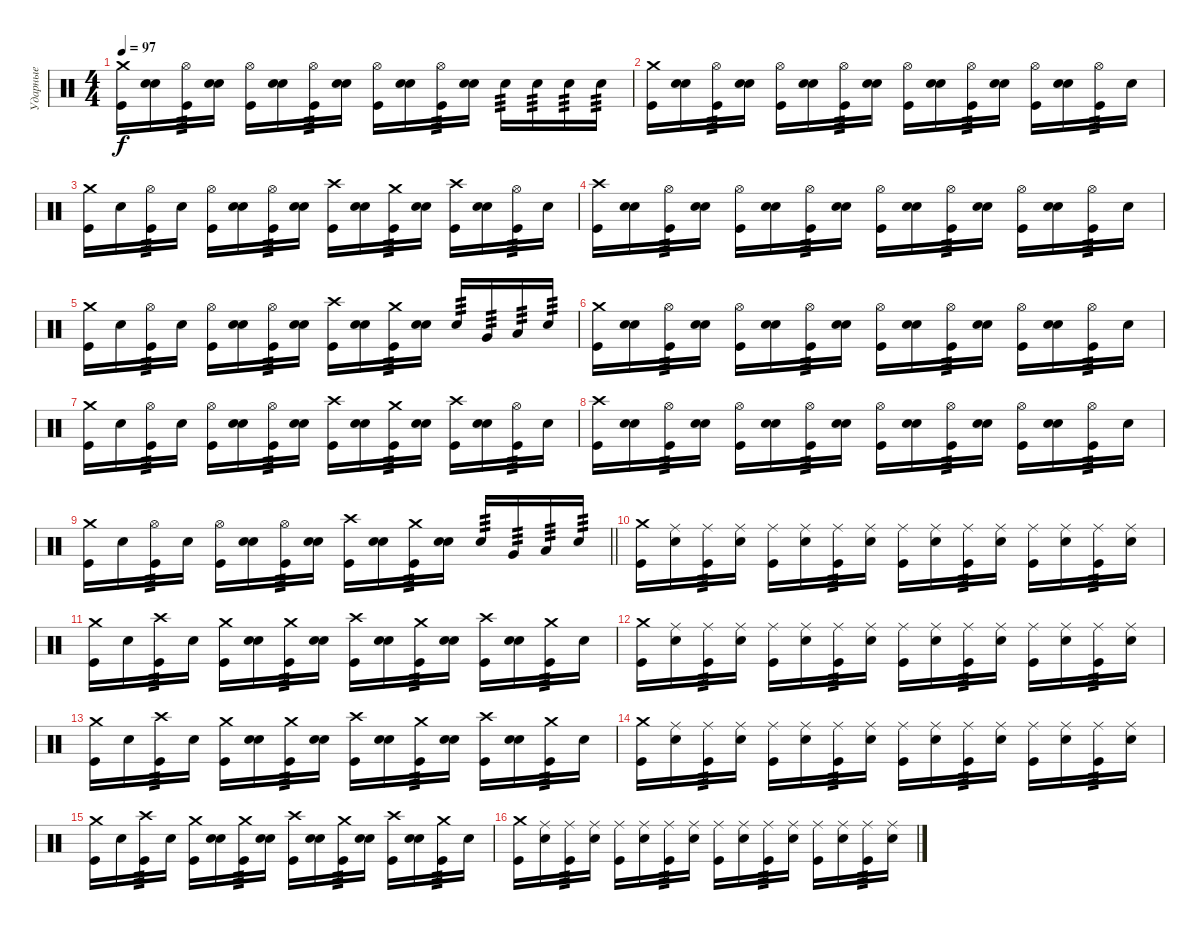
\track ("Ударные" "Ударные") {instrument percussion}
\staff {score}
\articulation defaults
\ts (4 4)
\tempo 97
\clef neutral
\ks c
("Kick (hit)" "Crash medium (hit)").16{dy f} ("Electric Snare (hit)" "Snare (hit)").16 ("Kick (hit)" "Hi-Hat (open)").16{tp 3} ("Electric Snare (hit)" "Snare (hit)").16 ("Kick (hit)" "Hi-Hat (open)").16 ("Electric Snare (hit)" "Snare (hit)").16 ("Kick (hit)" "Hi-Hat (open)").16{tp 3} ("Electric Snare (hit)" "Snare (hit)").16 ("Kick (hit)" "Hi-Hat (open)").16 ("Electric Snare (hit)" "Snare (hit)").16 ("Kick (hit)" "Hi-Hat (open)").16{tp 3} ("Electric Snare (hit)" "Snare (hit)").16 "Electric Snare (hit)".16{tp 3} "Electric Snare (hit)".16{tp 3} "Electric Snare (hit)".16{tp 3} "Electric Snare (hit)".16{tp 3} |
("Kick (hit)" "Crash medium (hit)").16 ("Electric Snare (hit)" "Snare (hit)").16 ("Kick (hit)" "Hi-Hat (open)").16{tp 3} ("Electric Snare (hit)" "Snare (hit)").16 ("Kick (hit)" "Hi-Hat (open)").16 ("Electric Snare (hit)" "Snare (hit)").16 ("Kick (hit)" "Hi-Hat (open)").16{tp 3} ("Electric Snare (hit)" "Snare (hit)").16 ("Kick (hit)" "Hi-Hat (open)").16 ("Electric Snare (hit)" "Snare (hit)").16 ("Kick (hit)" "Hi-Hat (open)").16{tp 3} ("Electric Snare (hit)" "Snare (hit)").16 ("Kick (hit)" "Hi-Hat (open)").16 ("Electric Snare (hit)" "Snare (hit)").16 ("Kick (hit)" "Hi-Hat (open)").16{tp 3} "Electric Snare (hit)".16 |
("Kick (hit)" "Crash medium (hit)").16 "Electric Snare (hit)".16 ("Kick (hit)" "Hi-Hat (open)").16{tp 3} "Electric Snare (hit)".16 ("Kick (hit)" "Hi-Hat (open)").16 ("Electric Snare (hit)" "Snare (hit)").16 ("Kick (hit)" "Hi-Hat (open)").16{tp 3} ("Electric Snare (hit)" "Snare (hit)").16 ("Kick (hit)" "Crash high (hit)").16 ("Electric Snare (hit)" "Snare (hit)").16 ("Kick (hit)" "Crash medium (hit)").16{tp 3} ("Electric Snare (hit)" "Snare (hit)").16 ("Kick (hit)" "Crash high (hit)").16 ("Electric Snare (hit)" "Snare (hit)").16 ("Kick (hit)" "Hi-Hat (open)").16{tp 3} "Electric Snare (hit)".16 |
("Kick (hit)" "Crash high (hit)").16 ("Electric Snare (hit)" "Snare (hit)").16 ("Kick (hit)" "Hi-Hat (open)").16{tp 3} ("Electric Snare (hit)" "Snare (hit)").16 ("Kick (hit)" "Hi-Hat (open)").16 ("Electric Snare (hit)" "Snare (hit)").16 ("Kick (hit)" "Hi-Hat (open)").16{tp 3} ("Electric Snare (hit)" "Snare (hit)").16 ("Kick (hit)" "Hi-Hat (open)").16 ("Electric Snare (hit)" "Snare (hit)").16 ("Kick (hit)" "Hi-Hat (open)").16{tp 3} ("Electric Snare (hit)" "Snare (hit)").16 ("Kick (hit)" "Hi-Hat (open)").16 ("Electric Snare (hit)" "Snare (hit)").16 ("Kick (hit)" "Hi-Hat (open)").16{tp 3} "Electric Snare (hit)".16 |
("Kick (hit)" "Crash medium (hit)").16 "Electric Snare (hit)".16 ("Kick (hit)" "Hi-Hat (open)").16{tp 3} "Electric Snare (hit)".16 ("Kick (hit)" "Hi-Hat (open)").16 ("Electric Snare (hit)" "Snare (hit)").16 ("Kick (hit)" "Hi-Hat (open)").16{tp 3} ("Electric Snare (hit)" "Snare (hit)").16 ("Kick (hit)" "Crash high (hit)").16 ("Electric Snare (hit)" "Snare (hit)").16 ("Kick (hit)" "Crash medium (hit)").16{tp 3} ("Electric Snare (hit)" "Snare (hit)").16 "Electric Snare (hit)".16{tp 3} "Very Low Tom (hit)".16{tp 3} "Low Tom (hit)".16{tp 3} "Electric Snare (hit)".16{tp 3} |
("Kick (hit)" "Crash medium (hit)").16 ("Electric Snare (hit)" "Snare (hit)").16 ("Kick (hit)" "Hi-Hat (open)").16{tp 3} ("Electric Snare (hit)" "Snare (hit)").16 ("Kick (hit)" "Hi-Hat (open)").16 ("Electric Snare (hit)" "Snare (hit)").16 ("Kick (hit)" "Hi-Hat (open)").16{tp 3} ("Electric Snare (hit)" "Snare (hit)").16 ("Kick (hit)" "Hi-Hat (open)").16 ("Electric Snare (hit)" "Snare (hit)").16 ("Kick (hit)" "Hi-Hat (open)").16{tp 3} ("Electric Snare (hit)" "Snare (hit)").16 ("Kick (hit)" "Hi-Hat (open)").16 ("Electric Snare (hit)" "Snare (hit)").16 ("Kick (hit)" "Hi-Hat (open)").16{tp 3} "Electric Snare (hit)".16 |
("Kick (hit)" "Crash medium (hit)").16 "Electric Snare (hit)".16 ("Kick (hit)" "Hi-Hat (open)").16{tp 3} "Electric Snare (hit)".16 ("Kick (hit)" "Hi-Hat (open)").16 ("Electric Snare (hit)" "Snare (hit)").16 ("Kick (hit)" "Hi-Hat (open)").16{tp 3} ("Electric Snare (hit)" "Snare (hit)").16 ("Kick (hit)" "Crash high (hit)").16 ("Electric Snare (hit)" "Snare (hit)").16 ("Kick (hit)" "Crash medium (hit)").16{tp 3} ("Electric Snare (hit)" "Snare (hit)").16 ("Kick (hit)" "Crash high (hit)").16 ("Electric Snare (hit)" "Snare (hit)").16 ("Kick (hit)" "Hi-Hat (open)").16{tp 3} "Electric Snare (hit)".16 |
("Kick (hit)" "Crash high (hit)").16 ("Electric Snare (hit)" "Snare (hit)").16 ("Kick (hit)" "Hi-Hat (open)").16{tp 3} ("Electric Snare (hit)" "Snare (hit)").16 ("Kick (hit)" "Hi-Hat (open)").16 ("Electric Snare (hit)" "Snare (hit)").16 ("Kick (hit)" "Hi-Hat (open)").16{tp 3} ("Electric Snare (hit)" "Snare (hit)").16 ("Kick (hit)" "Hi-Hat (open)").16 ("Electric Snare (hit)" "Snare (hit)").16 ("Kick (hit)" "Hi-Hat (open)").16{tp 3} ("Electric Snare (hit)" "Snare (hit)").16 ("Kick (hit)" "Hi-Hat (open)").16 ("Electric Snare (hit)" "Snare (hit)").16 ("Kick (hit)" "Hi-Hat (open)").16{tp 3} "Electric Snare (hit)".16 |
\barLineRight lightlight
("Kick (hit)" "Crash medium (hit)").16 "Electric Snare (hit)".16 ("Kick (hit)" "Hi-Hat (open)").16{tp 3} "Electric Snare (hit)".16 ("Kick (hit)" "Hi-Hat (open)").16 ("Electric Snare (hit)" "Snare (hit)").16 ("Kick (hit)" "Hi-Hat (open)").16{tp 3} ("Electric Snare (hit)" "Snare (hit)").16 ("Kick (hit)" "Crash high (hit)").16 ("Electric Snare (hit)" "Snare (hit)").16 ("Kick (hit)" "Crash medium (hit)").16{tp 3} ("Electric Snare (hit)" "Snare (hit)").16 "Electric Snare (hit)".16{tp 3} "Very Low Tom (hit)".16{tp 3} "Low Tom (hit)".16{tp 3} "Electric Snare (hit)".16{tp 3} |
("Kick (hit)" "Crash medium (hit)").16 ("Electric Snare (hit)" "Ride (middle)").16 ("Kick (hit)" "Ride (middle)").16{tp 3} ("Electric Snare (hit)" "Ride (middle)").16 ("Kick (hit)" "Ride (middle)").16 ("Electric Snare (hit)" "Ride (middle)").16 ("Kick (hit)" "Ride (middle)").16{tp 3} ("Electric Snare (hit)" "Ride (middle)").16 ("Kick (hit)" "Ride (middle)").16 ("Electric Snare (hit)" "Ride (middle)").16 ("Kick (hit)" "Ride (middle)").16{tp 3} ("Electric Snare (hit)" "Ride (middle)").16 ("Kick (hit)" "Ride (middle)").16 ("Electric Snare (hit)" "Ride (middle)").16 ("Kick (hit)" "Ride (middle)").16{tp 3} ("Electric Snare (hit)" "Ride (middle)").16 |
("Kick (hit)" "Crash medium (hit)").16 "Electric Snare (hit)".16 ("Kick (hit)" "Crash high (hit)").16{tp 3} "Electric Snare (hit)".16 ("Kick (hit)" "Crash medium (hit)").16 ("Electric Snare (hit)" "Snare (hit)").16 ("Kick (hit)" "Crash medium (hit)").16{tp 3} ("Electric Snare (hit)" "Snare (hit)").16 ("Kick (hit)" "Crash high (hit)").16 ("Electric Snare (hit)" "Snare (hit)").16 ("Kick (hit)" "Crash medium (hit)").16{tp 3} ("Electric Snare (hit)" "Snare (hit)").16 ("Kick (hit)" "Crash high (hit)").16 ("Electric Snare (hit)" "Snare (hit)").16 ("Kick (hit)" "Crash medium (hit)").16{tp 3} "Electric Snare (hit)".16 |
("Kick (hit)" "Crash medium (hit)").16 ("Electric Snare (hit)" "Ride (middle)").16 ("Kick (hit)" "Ride (middle)").16{tp 3} ("Electric Snare (hit)" "Ride (middle)").16 ("Kick (hit)" "Ride (middle)").16 ("Electric Snare (hit)" "Ride (middle)").16 ("Kick (hit)" "Ride (middle)").16{tp 3} ("Electric Snare (hit)" "Ride (middle)").16 ("Kick (hit)" "Ride (middle)").16 ("Electric Snare (hit)" "Ride (middle)").16 ("Kick (hit)" "Ride (middle)").16{tp 3} ("Electric Snare (hit)" "Ride (middle)").16 ("Kick (hit)" "Ride (middle)").16 ("Electric Snare (hit)" "Ride (middle)").16 ("Kick (hit)" "Ride (middle)").16{tp 3} ("Electric Snare (hit)" "Ride (middle)").16 |
("Kick (hit)" "Crash medium (hit)").16 "Electric Snare (hit)".16 ("Kick (hit)" "Crash high (hit)").16{tp 3} "Electric Snare (hit)".16 ("Kick (hit)" "Crash medium (hit)").16 ("Electric Snare (hit)" "Snare (hit)").16 ("Kick (hit)" "Crash medium (hit)").16{tp 3} ("Electric Snare (hit)" "Snare (hit)").16 ("Kick (hit)" "Crash high (hit)").16 ("Electric Snare (hit)" "Snare (hit)").16 ("Kick (hit)" "Crash medium (hit)").16{tp 3} ("Electric Snare (hit)" "Snare (hit)").16 ("Kick (hit)" "Crash high (hit)").16 ("Electric Snare (hit)" "Snare (hit)").16 ("Kick (hit)" "Crash medium (hit)").16{tp 3} "Electric Snare (hit)".16 |
("Kick (hit)" "Crash medium (hit)").16 ("Electric Snare (hit)" "Ride (middle)").16 ("Kick (hit)" "Ride (middle)").16{tp 3} ("Electric Snare (hit)" "Ride (middle)").16 ("Kick (hit)" "Ride (middle)").16 ("Electric Snare (hit)" "Ride (middle)").16 ("Kick (hit)" "Ride (middle)").16{tp 3} ("Electric Snare (hit)" "Ride (middle)").16 ("Kick (hit)" "Ride (middle)").16 ("Electric Snare (hit)" "Ride (middle)").16 ("Kick (hit)" "Ride (middle)").16{tp 3} ("Electric Snare (hit)" "Ride (middle)").16 ("Kick (hit)" "Ride (middle)").16 ("Electric Snare (hit)" "Ride (middle)").16 ("Kick (hit)" "Ride (middle)").16{tp 3} ("Electric Snare (hit)" "Ride (middle)").16 |
("Kick (hit)" "Crash medium (hit)").16 "Electric Snare (hit)".16 ("Kick (hit)" "Crash high (hit)").16{tp 3} "Electric Snare (hit)".16 ("Kick (hit)" "Crash medium (hit)").16 ("Electric Snare (hit)" "Snare (hit)").16 ("Kick (hit)" "Crash medium (hit)").16{tp 3} ("Electric Snare (hit)" "Snare (hit)").16 ("Kick (hit)" "Crash high (hit)").16 ("Electric Snare (hit)" "Snare (hit)").16 ("Kick (hit)" "Crash medium (hit)").16{tp 3} ("Electric Snare (hit)" "Snare (hit)").16 ("Kick (hit)" "Crash high (hit)").16 ("Electric Snare (hit)" "Snare (hit)").16 ("Kick (hit)" "Crash medium (hit)").16{tp 3} "Electric Snare (hit)".16 |
("Kick (hit)" "Crash medium (hit)").16 ("Electric Snare (hit)" "Ride (middle)").16 ("Kick (hit)" "Ride (middle)").16{tp 3} ("Electric Snare (hit)" "Ride (middle)").16 ("Kick (hit)" "Ride (middle)").16 ("Electric Snare (hit)" "Ride (middle)").16 ("Kick (hit)" "Ride (middle)").16{tp 3} ("Electric Snare (hit)" "Ride (middle)").16 ("Kick (hit)" "Ride (middle)").16 ("Electric Snare (hit)" "Ride (middle)").16 ("Kick (hit)" "Ride (middle)").16{tp 3} ("Electric Snare (hit)" "Ride (middle)").16 ("Kick (hit)" "Ride (middle)").16 ("Electric Snare (hit)" "Ride (middle)").16 ("Kick (hit)" "Ride (middle)").16{tp 3} ("Electric Snare (hit)" "Ride (middle)").16
